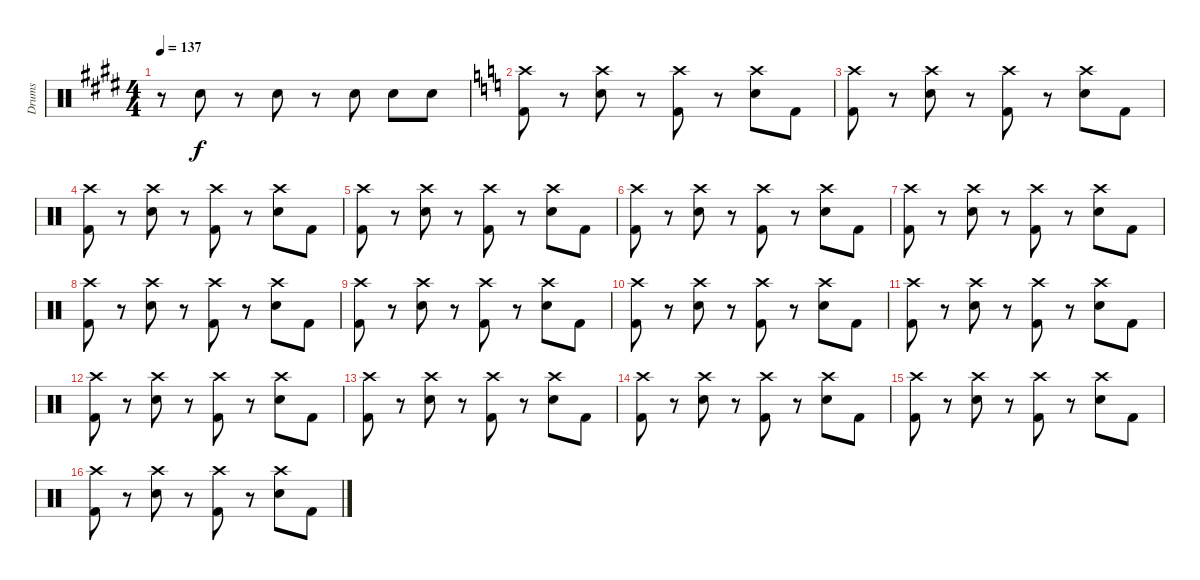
\track ("Drums" "Drums") {instrument percussion}
\staff {score}
\articulation defaults
\ts (4 4)
\tempo 137
\clef neutral
\ks e
r.8{dy f} "Electric Snare (hit)".8 r.8 "Electric Snare (hit)".8 r.8 "Electric Snare (hit)".8 "Electric Snare (hit)".8 "Electric Snare (hit)".8 |
\ks c
("Crash high (hit)" "Kick (hit) 2").8 r.8 ("Crash high (hit)" "Electric Snare (hit)").8 r.8 ("Crash high (hit)" "Kick (hit) 2").8 r.8 ("Crash high (hit)" "Electric Snare (hit)").8 "Kick (hit) 2".8 |
("Crash high (hit)" "Kick (hit) 2").8 r.8 ("Crash high (hit)" "Electric Snare (hit)").8 r.8 ("Crash high (hit)" "Kick (hit) 2").8 r.8 ("Crash high (hit)" "Electric Snare (hit)").8 "Kick (hit) 2".8 |
("Crash high (hit)" "Kick (hit) 2").8 r.8 ("Crash high (hit)" "Electric Snare (hit)").8 r.8 ("Crash high (hit)" "Kick (hit) 2").8 r.8 ("Crash high (hit)" "Electric Snare (hit)").8 "Kick (hit) 2".8 |
("Crash high (hit)" "Kick (hit) 2").8 r.8 ("Crash high (hit)" "Electric Snare (hit)").8 r.8 ("Crash high (hit)" "Kick (hit) 2").8 r.8 ("Crash high (hit)" "Electric Snare (hit)").8 "Kick (hit) 2".8 |
("Crash high (hit)" "Kick (hit) 2").8 r.8 ("Crash high (hit)" "Electric Snare (hit)").8 r.8 ("Crash high (hit)" "Kick (hit) 2").8 r.8 ("Crash high (hit)" "Electric Snare (hit)").8 "Kick (hit) 2".8 |
("Crash high (hit)" "Kick (hit) 2").8 r.8 ("Crash high (hit)" "Electric Snare (hit)").8 r.8 ("Crash high (hit)" "Kick (hit) 2").8 r.8 ("Crash high (hit)" "Electric Snare (hit)").8 "Kick (hit) 2".8 |
("Crash high (hit)" "Kick (hit) 2").8 r.8 ("Crash high (hit)" "Electric Snare (hit)").8 r.8 ("Crash high (hit)" "Kick (hit) 2").8 r.8 ("Crash high (hit)" "Electric Snare (hit)").8 "Kick (hit) 2".8 |
("Crash high (hit)" "Kick (hit) 2").8 r.8 ("Crash high (hit)" "Electric Snare (hit)").8 r.8 ("Crash high (hit)" "Kick (hit) 2").8 r.8 ("Crash high (hit)" "Electric Snare (hit)").8 "Kick (hit) 2".8 |
("Crash high (hit)" "Kick (hit) 2").8 r.8 ("Crash high (hit)" "Electric Snare (hit)").8 r.8 ("Crash high (hit)" "Kick (hit) 2").8 r.8 ("Crash high (hit)" "Electric Snare (hit)").8 "Kick (hit) 2".8 |
("Crash high (hit)" "Kick (hit) 2").8 r.8 ("Crash high (hit)" "Electric Snare (hit)").8 r.8 ("Crash high (hit)" "Kick (hit) 2").8 r.8 ("Crash high (hit)" "Electric Snare (hit)").8 "Kick (hit) 2".8 |
("Crash high (hit)" "Kick (hit) 2").8 r.8 ("Crash high (hit)" "Electric Snare (hit)").8 r.8 ("Crash high (hit)" "Kick (hit) 2").8 r.8 ("Crash high (hit)" "Electric Snare (hit)").8 "Kick (hit) 2".8 |
("Crash high (hit)" "Kick (hit) 2").8 r.8 ("Crash high (hit)" "Electric Snare (hit)").8 r.8 ("Crash high (hit)" "Kick (hit) 2").8 r.8 ("Crash high (hit)" "Electric Snare (hit)").8 "Kick (hit) 2".8 |
("Crash high (hit)" "Kick (hit) 2").8 r.8 ("Crash high (hit)" "Electric Snare (hit)").8 r.8 ("Crash high (hit)" "Kick (hit) 2").8 r.8 ("Crash high (hit)" "Electric Snare (hit)").8 "Kick (hit) 2".8 |
("Crash high (hit)" "Kick (hit) 2").8 r.8 ("Crash high (hit)" "Electric Snare (hit)").8 r.8 ("Crash high (hit)" "Kick (hit) 2").8 r.8 ("Crash high (hit)" "Electric Snare (hit)").8 "Kick (hit) 2".8 |
("Crash high (hit)" "Kick (hit) 2").8 r.8 ("Crash high (hit)" "Electric Snare (hit)").8 r.8 ("Crash high (hit)" "Kick (hit) 2").8 r.8 ("Crash high (hit)" "Electric Snare (hit)").8 "Kick (hit) 2".8
